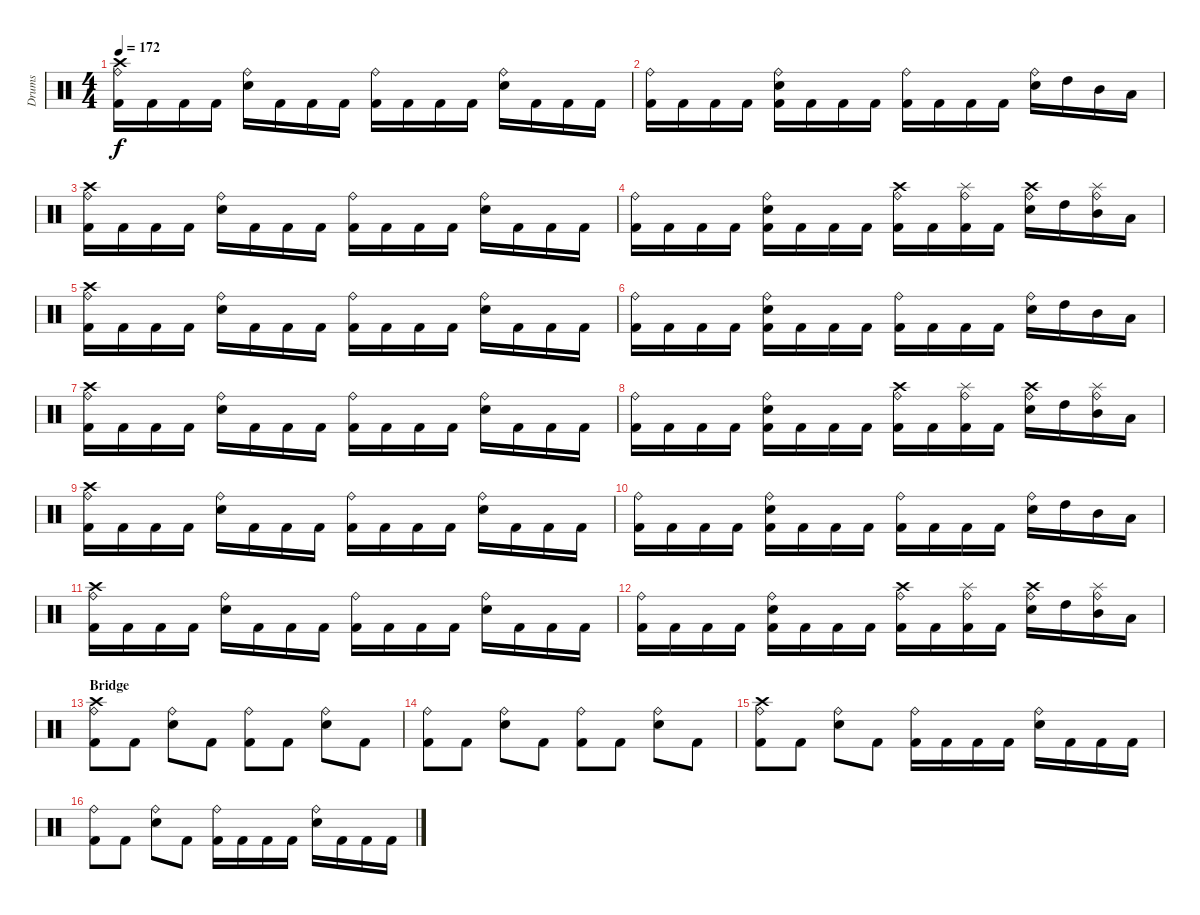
\track ("Drums" "Drums") {instrument percussion}
\staff {score}
\articulation defaults
\ts (4 4)
\tempo 172
\clef neutral
\ks c
("Crash high (hit)" "Ride (bell)" "Kick (hit) 2").16{dy f} "Kick (hit) 2".16 "Kick (hit) 2".16 "Kick (hit) 2".16 ("Ride (bell)" "Electric Snare (hit)").16 "Kick (hit) 2".16 "Kick (hit) 2".16 "Kick (hit) 2".16 ("Ride (bell)" "Kick (hit) 2").16 "Kick (hit) 2".16 "Kick (hit) 2".16 "Kick (hit) 2".16 ("Ride (bell)" "Electric Snare (hit)").16 "Kick (hit) 2".16 "Kick (hit) 2".16 "Kick (hit) 2".16 |
("Ride (bell)" "Kick (hit) 2").16 "Kick (hit) 2".16 "Kick (hit) 2".16 "Kick (hit) 2".16 ("Ride (bell)" "Electric Snare (hit)" "Kick (hit) 2").16 "Kick (hit) 2".16 "Kick (hit) 2".16 "Kick (hit) 2".16 ("Ride (bell)" "Kick (hit) 2").16 "Kick (hit) 2".16 "Kick (hit) 2".16 "Kick (hit) 2".16 ("Ride (bell)" "Electric Snare (hit)").16 "High Tom (hit)".16 "Mid Tom (hit)".16 "Low Tom (hit)".16 |
("Crash high (hit)" "Ride (bell)" "Kick (hit) 2").16 "Kick (hit) 2".16 "Kick (hit) 2".16 "Kick (hit) 2".16 ("Ride (bell)" "Electric Snare (hit)").16 "Kick (hit) 2".16 "Kick (hit) 2".16 "Kick (hit) 2".16 ("Ride (bell)" "Kick (hit) 2").16 "Kick (hit) 2".16 "Kick (hit) 2".16 "Kick (hit) 2".16 ("Ride (bell)" "Electric Snare (hit)").16 "Kick (hit) 2".16 "Kick (hit) 2".16 "Kick (hit) 2".16 |
("Ride (bell)" "Kick (hit) 2").16 "Kick (hit) 2".16 "Kick (hit) 2".16 "Kick (hit) 2".16 ("Ride (bell)" "Electric Snare (hit)" "Kick (hit) 2").16 "Kick (hit) 2".16 "Kick (hit) 2".16 "Kick (hit) 2".16 ("Crash high (hit)" "Ride (bell)" "Kick (hit) 2").16 "Kick (hit) 2".16 ("Splash (hit)" "Ride (bell)" "Kick (hit) 2").16 "Kick (hit) 2".16 ("Crash high (hit)" "Ride (bell)" "Electric Snare (hit)").16 "High Tom (hit)".16 ("Splash (hit)" "Ride (bell)" "Mid Tom (hit)").16 "Low Tom (hit)".16 |
("Crash high (hit)" "Ride (bell)" "Kick (hit) 2").16 "Kick (hit) 2".16 "Kick (hit) 2".16 "Kick (hit) 2".16 ("Ride (bell)" "Electric Snare (hit)").16 "Kick (hit) 2".16 "Kick (hit) 2".16 "Kick (hit) 2".16 ("Ride (bell)" "Kick (hit) 2").16 "Kick (hit) 2".16 "Kick (hit) 2".16 "Kick (hit) 2".16 ("Ride (bell)" "Electric Snare (hit)").16 "Kick (hit) 2".16 "Kick (hit) 2".16 "Kick (hit) 2".16 |
("Ride (bell)" "Kick (hit) 2").16 "Kick (hit) 2".16 "Kick (hit) 2".16 "Kick (hit) 2".16 ("Ride (bell)" "Electric Snare (hit)" "Kick (hit) 2").16 "Kick (hit) 2".16 "Kick (hit) 2".16 "Kick (hit) 2".16 ("Ride (bell)" "Kick (hit) 2").16 "Kick (hit) 2".16 "Kick (hit) 2".16 "Kick (hit) 2".16 ("Ride (bell)" "Electric Snare (hit)").16 "High Tom (hit)".16 "Mid Tom (hit)".16 "Low Tom (hit)".16 |
("Crash high (hit)" "Ride (bell)" "Kick (hit) 2").16 "Kick (hit) 2".16 "Kick (hit) 2".16 "Kick (hit) 2".16 ("Ride (bell)" "Electric Snare (hit)").16 "Kick (hit) 2".16 "Kick (hit) 2".16 "Kick (hit) 2".16 ("Ride (bell)" "Kick (hit) 2").16 "Kick (hit) 2".16 "Kick (hit) 2".16 "Kick (hit) 2".16 ("Ride (bell)" "Electric Snare (hit)").16 "Kick (hit) 2".16 "Kick (hit) 2".16 "Kick (hit) 2".16 |
("Ride (bell)" "Kick (hit) 2").16 "Kick (hit) 2".16 "Kick (hit) 2".16 "Kick (hit) 2".16 ("Ride (bell)" "Electric Snare (hit)" "Kick (hit) 2").16 "Kick (hit) 2".16 "Kick (hit) 2".16 "Kick (hit) 2".16 ("Crash high (hit)" "Ride (bell)" "Kick (hit) 2").16 "Kick (hit) 2".16 ("Splash (hit)" "Ride (bell)" "Kick (hit) 2").16 "Kick (hit) 2".16 ("Crash high (hit)" "Ride (bell)" "Electric Snare (hit)").16 "High Tom (hit)".16 ("Splash (hit)" "Ride (bell)" "Mid Tom (hit)").16 "Low Tom (hit)".16 |
("Crash high (hit)" "Ride (bell)" "Kick (hit) 2").16 "Kick (hit) 2".16 "Kick (hit) 2".16 "Kick (hit) 2".16 ("Ride (bell)" "Electric Snare (hit)").16 "Kick (hit) 2".16 "Kick (hit) 2".16 "Kick (hit) 2".16 ("Ride (bell)" "Kick (hit) 2").16 "Kick (hit) 2".16 "Kick (hit) 2".16 "Kick (hit) 2".16 ("Ride (bell)" "Electric Snare (hit)").16 "Kick (hit) 2".16 "Kick (hit) 2".16 "Kick (hit) 2".16 |
("Ride (bell)" "Kick (hit) 2").16 "Kick (hit) 2".16 "Kick (hit) 2".16 "Kick (hit) 2".16 ("Ride (bell)" "Electric Snare (hit)" "Kick (hit) 2").16 "Kick (hit) 2".16 "Kick (hit) 2".16 "Kick (hit) 2".16 ("Ride (bell)" "Kick (hit) 2").16 "Kick (hit) 2".16 "Kick (hit) 2".16 "Kick (hit) 2".16 ("Ride (bell)" "Electric Snare (hit)").16 "High Tom (hit)".16 "Mid Tom (hit)".16 "Low Tom (hit)".16 |
("Crash high (hit)" "Ride (bell)" "Kick (hit) 2").16 "Kick (hit) 2".16 "Kick (hit) 2".16 "Kick (hit) 2".16 ("Ride (bell)" "Electric Snare (hit)").16 "Kick (hit) 2".16 "Kick (hit) 2".16 "Kick (hit) 2".16 ("Ride (bell)" "Kick (hit) 2").16 "Kick (hit) 2".16 "Kick (hit) 2".16 "Kick (hit) 2".16 ("Ride (bell)" "Electric Snare (hit)").16 "Kick (hit) 2".16 "Kick (hit) 2".16 "Kick (hit) 2".16 |
("Ride (bell)" "Kick (hit) 2").16 "Kick (hit) 2".16 "Kick (hit) 2".16 "Kick (hit) 2".16 ("Ride (bell)" "Electric Snare (hit)" "Kick (hit) 2").16 "Kick (hit) 2".16 "Kick (hit) 2".16 "Kick (hit) 2".16 ("Crash high (hit)" "Ride (bell)" "Kick (hit) 2").16 "Kick (hit) 2".16 ("Splash (hit)" "Ride (bell)" "Kick (hit) 2").16 "Kick (hit) 2".16 ("Crash high (hit)" "Ride (bell)" "Electric Snare (hit)").16 "High Tom (hit)".16 ("Splash (hit)" "Ride (bell)" "Mid Tom (hit)").16 "Low Tom (hit)".16 |
\section ("" "Bridge")
("Crash high (hit)" "Ride (bell)" "Kick (hit) 2").8 "Kick (hit) 2".8 ("Ride (bell)" "Electric Snare (hit)").8 "Kick (hit) 2".8 ("Ride (bell)" "Kick (hit) 2").8 "Kick (hit) 2".8 ("Ride (bell)" "Electric Snare (hit)").8 "Kick (hit) 2".8 |
("Ride (bell)" "Kick (hit) 2").8 "Kick (hit) 2".8 ("Ride (bell)" "Electric Snare (hit)").8 "Kick (hit) 2".8 ("Ride (bell)" "Kick (hit) 2").8 "Kick (hit) 2".8 ("Ride (bell)" "Electric Snare (hit)").8 "Kick (hit) 2".8 |
("Crash high (hit)" "Ride (bell)" "Kick (hit) 2").8 "Kick (hit) 2".8 ("Ride (bell)" "Electric Snare (hit)").8 "Kick (hit) 2".8 ("Ride (bell)" "Kick (hit) 2").16 "Kick (hit) 2".16 "Kick (hit) 2".16 "Kick (hit) 2".16 ("Ride (bell)" "Electric Snare (hit)").16 "Kick (hit) 2".16 "Kick (hit) 2".16 "Kick (hit) 2".16 |
("Ride (bell)" "Kick (hit) 2").8 "Kick (hit) 2".8 ("Ride (bell)" "Electric Snare (hit)").8 "Kick (hit) 2".8 ("Ride (bell)" "Kick (hit) 2").16 "Kick (hit) 2".16 "Kick (hit) 2".16 "Kick (hit) 2".16 ("Ride (bell)" "Electric Snare (hit)").16 "Kick (hit) 2".16 "Kick (hit) 2".16 "Kick (hit) 2".16
